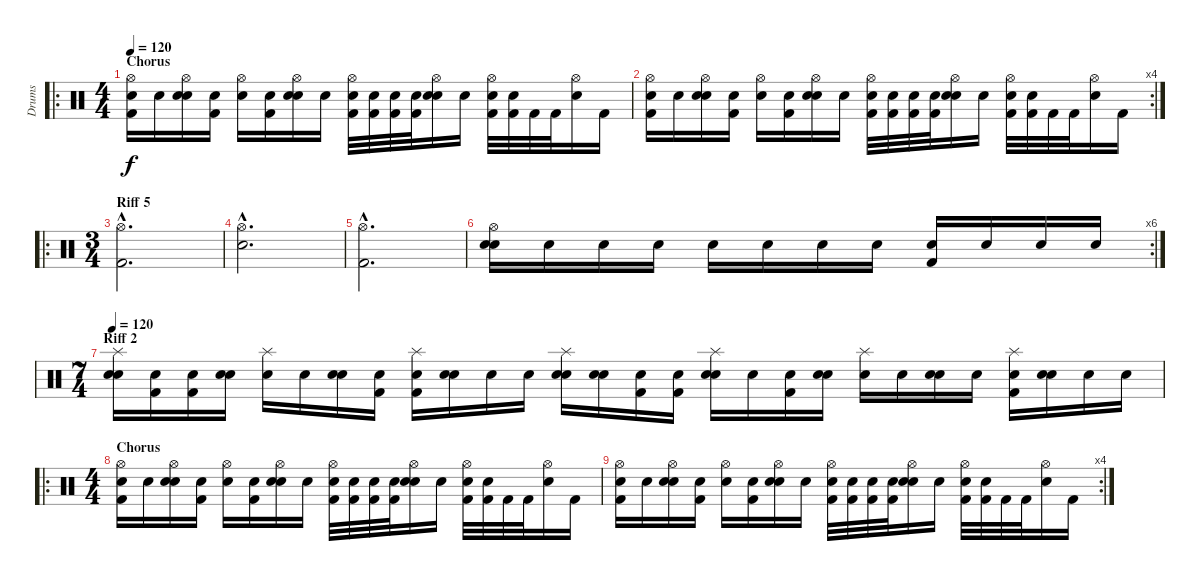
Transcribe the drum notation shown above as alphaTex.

\track ("Drums" "Drums") {instrument percussion}
\staff {score}
\articulation defaults
\ro
\ts (4 4)
\section ("" "Chorus")
\tempo 120
\clef neutral
\ks c
("Snare (hit)" "Kick (hit) 2" "Hi-Hat (open)").16{dy f} "Snare (hit)".16 ("Snare (hit)" "Snare (hit) 2" "Hi-Hat (open)").16 ("Snare (hit)" "Kick (hit) 2").16 ("Snare (hit)" "Hi-Hat (open)").16 ("Snare (hit)" "Kick (hit) 2").16 ("Snare (hit)" "Snare (hit) 2" "Hi-Hat (open)").16 "Snare (hit)".16 ("Snare (hit)" "Kick (hit) 2" "Hi-Hat (open)").32 ("Snare (hit)" "Kick (hit) 2").32 ("Snare (hit)" "Kick (hit) 2").32 ("Snare (hit)" "Kick (hit) 2").32 ("Snare (hit)" "Snare (hit) 2" "Hi-Hat (open)").16 "Snare (hit)".16 ("Snare (hit)" "Kick (hit) 2" "Hi-Hat (open)").32 ("Snare (hit)" "Kick (hit) 2").32 "Kick (hit) 2".32 "Kick (hit) 2".32 ("Snare (hit) 2" "Hi-Hat (open)").16 "Kick (hit) 2".16 |
\rc 4
("Snare (hit)" "Kick (hit) 2" "Hi-Hat (open)").16 "Snare (hit)".16 ("Snare (hit)" "Snare (hit) 2" "Hi-Hat (open)").16 ("Snare (hit)" "Kick (hit) 2").16 ("Snare (hit)" "Hi-Hat (open)").16 ("Snare (hit)" "Kick (hit) 2").16 ("Snare (hit)" "Snare (hit) 2" "Hi-Hat (open)").16 "Snare (hit)".16 ("Snare (hit)" "Kick (hit) 2" "Hi-Hat (open)").32 ("Snare (hit)" "Kick (hit) 2").32 ("Snare (hit)" "Kick (hit) 2").32 ("Snare (hit)" "Kick (hit) 2").32 ("Snare (hit)" "Snare (hit) 2" "Hi-Hat (open)").16 "Snare (hit)".16 ("Snare (hit)" "Kick (hit) 2" "Hi-Hat (open)").32 ("Snare (hit)" "Kick (hit) 2").32 "Kick (hit) 2".32 "Kick (hit) 2".32 ("Snare (hit) 2" "Hi-Hat (open)").16 "Kick (hit) 2".16 |
\ro
\ts (3 4)
\section ("" "Riff 5")
("Kick (hit) 2"{hac} "Hi-Hat (open)"{hac}).2{d} |
("Snare (hit) 2"{hac} "Hi-Hat (open)"{hac}).2{d} |
("Kick (hit) 2"{hac} "Hi-Hat (open)"{hac}).2{d} |
\rc 6
("Snare (hit)" "Snare (hit) 2" "Hi-Hat (open)").16 "Snare (hit)".16 "Snare (hit)".16 "Snare (hit)".16 "Snare (hit)".16 "Snare (hit)".16 "Snare (hit)".16 "Snare (hit)".16 ("Snare (hit)" "Kick (hit) 2").16 "Snare (hit)".16 "Snare (hit)".16 "Snare (hit)".16 |
\ts (7 4)
\section ("" "Riff 2")
\tempo 120
("Snare (hit)" "Splash (hit)" "Snare (hit) 2").16 ("Snare (hit)" "Kick (hit) 2").16 ("Snare (hit)" "Kick (hit) 2").16 ("Snare (hit)" "Snare (hit) 2").16 ("Snare (hit)" "Splash (hit)").16 "Snare (hit)".16 ("Snare (hit)" "Snare (hit) 2").16 ("Snare (hit)" "Kick (hit) 2").16 ("Snare (hit)" "Splash (hit)" "Kick (hit) 2").16 ("Snare (hit)" "Snare (hit) 2").16 "Snare (hit)".16 "Snare (hit)".16 ("Snare (hit)" "Splash (hit)" "Snare (hit) 2").16 ("Snare (hit)" "Snare (hit) 2").16 ("Snare (hit)" "Kick (hit) 2").16 ("Snare (hit)" "Kick (hit) 2").16 ("Snare (hit)" "Splash (hit)" "Snare (hit) 2").16 "Snare (hit)".16 ("Snare (hit)" "Kick (hit) 2").16 ("Snare (hit)" "Snare (hit) 2").16 ("Snare (hit)" "Splash (hit)").16 "Snare (hit)".16 ("Snare (hit)" "Snare (hit) 2").16 "Snare (hit)".16 ("Snare (hit)" "Splash (hit)" "Kick (hit) 2").16 ("Snare (hit)" "Snare (hit) 2").16 "Snare (hit)".16 "Snare (hit)".16 |
\ro
\ts (4 4)
\section ("" "Chorus")
("Snare (hit)" "Kick (hit) 2" "Hi-Hat (open)").16 "Snare (hit)".16 ("Snare (hit)" "Snare (hit) 2" "Hi-Hat (open)").16 ("Snare (hit)" "Kick (hit) 2").16 ("Snare (hit)" "Hi-Hat (open)").16 ("Snare (hit)" "Kick (hit) 2").16 ("Snare (hit)" "Snare (hit) 2" "Hi-Hat (open)").16 "Snare (hit)".16 ("Snare (hit)" "Kick (hit) 2" "Hi-Hat (open)").32 ("Snare (hit)" "Kick (hit) 2").32 ("Snare (hit)" "Kick (hit) 2").32 ("Snare (hit)" "Kick (hit) 2").32 ("Snare (hit)" "Snare (hit) 2" "Hi-Hat (open)").16 "Snare (hit)".16 ("Snare (hit)" "Kick (hit) 2" "Hi-Hat (open)").32 ("Snare (hit)" "Kick (hit) 2").32 "Kick (hit) 2".32 "Kick (hit) 2".32 ("Snare (hit) 2" "Hi-Hat (open)").16 "Kick (hit) 2".16 |
\rc 4
("Snare (hit)" "Kick (hit) 2" "Hi-Hat (open)").16 "Snare (hit)".16 ("Snare (hit)" "Snare (hit) 2" "Hi-Hat (open)").16 ("Snare (hit)" "Kick (hit) 2").16 ("Snare (hit)" "Hi-Hat (open)").16 ("Snare (hit)" "Kick (hit) 2").16 ("Snare (hit)" "Snare (hit) 2" "Hi-Hat (open)").16 "Snare (hit)".16 ("Snare (hit)" "Kick (hit) 2" "Hi-Hat (open)").32 ("Snare (hit)" "Kick (hit) 2").32 ("Snare (hit)" "Kick (hit) 2").32 ("Snare (hit)" "Kick (hit) 2").32 ("Snare (hit)" "Snare (hit) 2" "Hi-Hat (open)").16 "Snare (hit)".16 ("Snare (hit)" "Kick (hit) 2" "Hi-Hat (open)").32 ("Snare (hit)" "Kick (hit) 2").32 "Kick (hit) 2".32 "Kick (hit) 2".32 ("Snare (hit) 2" "Hi-Hat (open)").16 "Kick (hit) 2".16
